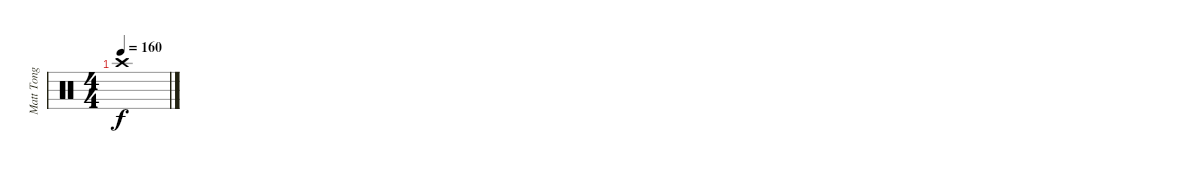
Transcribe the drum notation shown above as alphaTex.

\track ("Matt Tong" "Matt Tong") {instrument percussion}
\staff {score}
\articulation defaults
\ts (4 4)
\tempo 160
\clef neutral
\ks c "Crash high (hit)".1{dy f}
